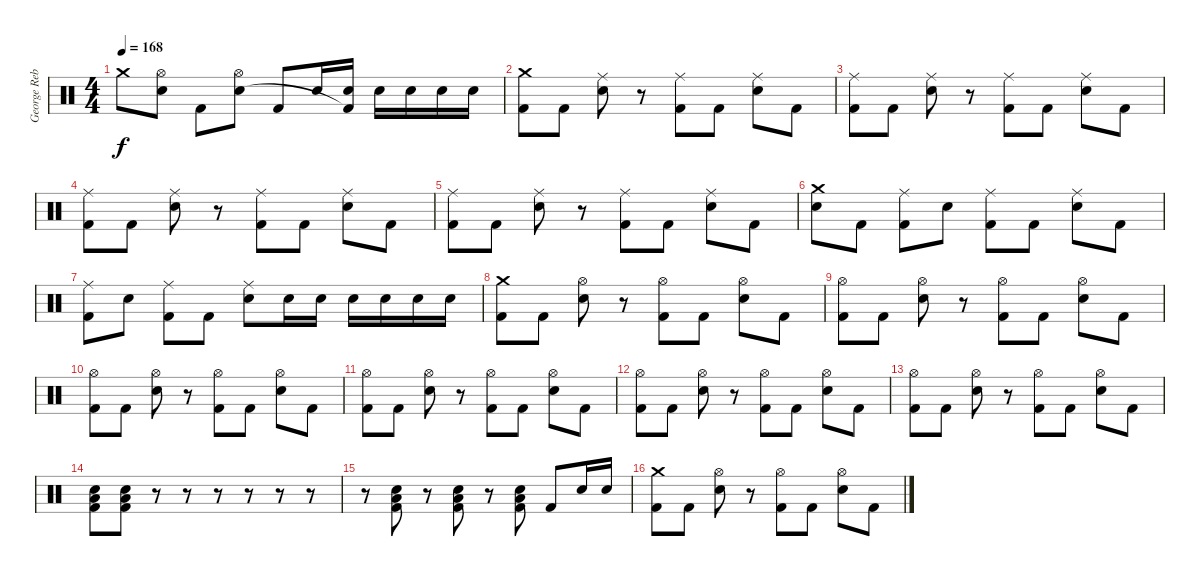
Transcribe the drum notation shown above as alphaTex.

\track ("George Rebelo" "George Reb") {instrument percussion}
\staff {score}
\articulation defaults
\ts (4 4)
\tempo 168
\clef neutral
\ks c "Crash medium (hit)".8{dy f}
("Hi-Hat (open)" "Electric Snare (hit)").8 "Kick (hit) 2".8 ("Hi-Hat (open)" "Electric Snare (hit)").8 "Kick (hit) 2".8 "Electric Snare (hit)".16 ("Electric Snare (hit)" "Kick (hit) 2"{t}).16 "Electric Snare (hit)".16 "Electric Snare (hit)".16 "Electric Snare (hit)".16 "Electric Snare (hit)".16 |
("Crash medium (hit)" "Kick (hit) 2").8 "Kick (hit) 2".8 ("Ride (middle)" "Electric Snare (hit)").8 r.8 ("Ride (middle)" "Kick (hit) 2").8 "Kick (hit) 2".8 ("Ride (middle)" "Electric Snare (hit)").8 "Kick (hit) 2".8 |
("Ride (middle)" "Kick (hit) 2").8 "Kick (hit) 2".8 ("Ride (middle)" "Electric Snare (hit)").8 r.8 ("Ride (middle)" "Kick (hit) 2").8 "Kick (hit) 2".8 ("Ride (middle)" "Electric Snare (hit)").8 "Kick (hit) 2".8 |
("Ride (middle)" "Kick (hit) 2").8 "Kick (hit) 2".8 ("Ride (middle)" "Electric Snare (hit)").8 r.8 ("Ride (middle)" "Kick (hit) 2").8 "Kick (hit) 2".8 ("Ride (middle)" "Electric Snare (hit)").8 "Kick (hit) 2".8 |
("Ride (middle)" "Kick (hit) 2").8 "Kick (hit) 2".8 ("Ride (middle)" "Electric Snare (hit)").8 r.8 ("Ride (middle)" "Kick (hit) 2").8 "Kick (hit) 2".8 ("Ride (middle)" "Electric Snare (hit)").8 "Kick (hit) 2".8 |
("Crash medium (hit)" "Electric Snare (hit)").8 "Kick (hit) 2".8 ("Ride (middle)" "Kick (hit) 2").8 "Electric Snare (hit)".8 ("Ride (middle)" "Kick (hit) 2").8 "Kick (hit) 2".8 ("Ride (middle)" "Electric Snare (hit)").8 "Kick (hit) 2".8 |
("Ride (middle)" "Kick (hit) 2").8 "Electric Snare (hit)".8 ("Ride (middle)" "Kick (hit) 2").8 "Kick (hit) 2".8 ("Electric Snare (hit)" "Ride (middle)").8 "Electric Snare (hit)".16 "Electric Snare (hit)".16 "Electric Snare (hit)".16 "Electric Snare (hit)".16 "Electric Snare (hit)".16 "Electric Snare (hit)".16 |
("Crash medium (hit)" "Kick (hit) 2").8 "Kick (hit) 2".8 ("Hi-Hat (open)" "Electric Snare (hit)").8 r.8 ("Hi-Hat (open)" "Kick (hit) 2").8 "Kick (hit) 2".8 ("Hi-Hat (open)" "Electric Snare (hit)").8 "Kick (hit) 2".8 |
("Hi-Hat (open)" "Kick (hit) 2").8 "Kick (hit) 2".8 ("Hi-Hat (open)" "Electric Snare (hit)").8 r.8 ("Hi-Hat (open)" "Kick (hit) 2").8 "Kick (hit) 2".8 ("Hi-Hat (open)" "Electric Snare (hit)").8 "Kick (hit) 2".8 |
("Hi-Hat (open)" "Kick (hit) 2").8 "Kick (hit) 2".8 ("Hi-Hat (open)" "Electric Snare (hit)").8 r.8 ("Hi-Hat (open)" "Kick (hit) 2").8 "Kick (hit) 2".8 ("Hi-Hat (open)" "Electric Snare (hit)").8 "Kick (hit) 2".8 |
("Hi-Hat (open)" "Kick (hit) 2").8 "Kick (hit) 2".8 ("Hi-Hat (open)" "Electric Snare (hit)").8 r.8 ("Hi-Hat (open)" "Kick (hit) 2").8 "Kick (hit) 2".8 ("Hi-Hat (open)" "Electric Snare (hit)").8 "Kick (hit) 2".8 |
("Hi-Hat (open)" "Kick (hit) 2").8 "Kick (hit) 2".8 ("Hi-Hat (open)" "Electric Snare (hit)").8 r.8 ("Hi-Hat (open)" "Kick (hit) 2").8 "Kick (hit) 2".8 ("Hi-Hat (open)" "Electric Snare (hit)").8 "Kick (hit) 2".8 |
("Hi-Hat (open)" "Kick (hit) 2").8 "Kick (hit) 2".8 ("Hi-Hat (open)" "Electric Snare (hit)").8 r.8 ("Hi-Hat (open)" "Kick (hit) 2").8 "Kick (hit) 2".8 ("Hi-Hat (open)" "Electric Snare (hit)").8 "Kick (hit) 2".8 |
("Low Floor Tom (hit)" "Electric Snare (hit)" "Kick (hit) 2").8 ("Low Floor Tom (hit)" "Electric Snare (hit)" "Kick (hit) 2").8 r.8 r.8 r.8 r.8 r.8 r.8 |
r.8 ("Low Floor Tom (hit)" "Electric Snare (hit)" "Kick (hit) 2").8 r.8 ("Low Floor Tom (hit)" "Electric Snare (hit)" "Kick (hit) 2").8 r.8 ("Low Floor Tom (hit)" "Electric Snare (hit)" "Kick (hit) 2").8 "Kick (hit) 2".8 "Electric Snare (hit)".16 "Electric Snare (hit)".16 |
("Crash medium (hit)" "Kick (hit) 2").8 "Kick (hit) 2".8 ("Hi-Hat (open)" "Electric Snare (hit)").8 r.8 ("Hi-Hat (open)" "Kick (hit) 2").8 "Kick (hit) 2".8 ("Hi-Hat (open)" "Electric Snare (hit)").8 "Kick (hit) 2".8
